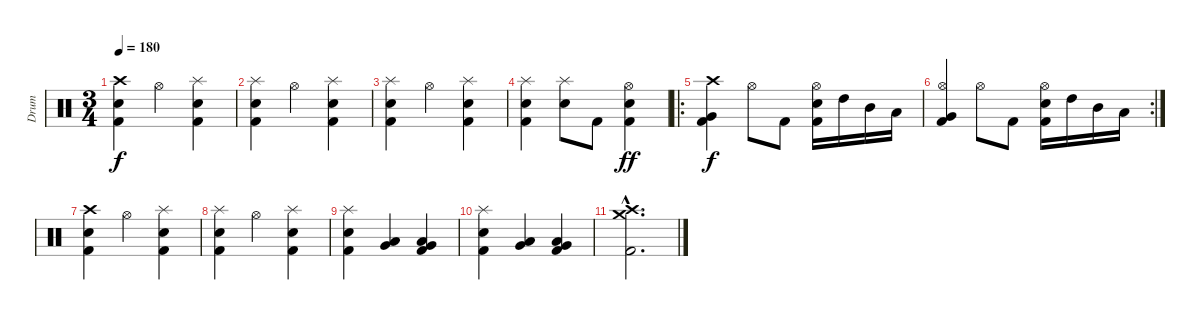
\track ("Drum" "Drum") {instrument percussion}
\staff {score}
\articulation defaults
\ts (3 4)
\tempo 180
\clef neutral
\ks c
("Crash high (hit)" "Electric Snare (hit)" "Kick (hit) 2").4{dy f} "Hi-Hat (open)".4 ("Splash (hit)" "Electric Snare (hit)" "Kick (hit) 2").4 |
("Splash (hit)" "Electric Snare (hit)" "Kick (hit) 2").4 "Hi-Hat (open)".4 ("Splash (hit)" "Electric Snare (hit)" "Kick (hit) 2").4 |
("Splash (hit)" "Electric Snare (hit)" "Kick (hit) 2").4 "Hi-Hat (open)".4 ("Splash (hit)" "Electric Snare (hit)" "Kick (hit) 2").4 |
("Splash (hit)" "Electric Snare (hit)" "Kick (hit) 2").4 ("Splash (hit)" "Electric Snare (hit)").8 "Kick (hit) 2".8 ("Hi-Hat (open)" "Electric Snare (hit)" "Kick (hit) 2").4{dy ff} |
\ro
("Crash high (hit)" "Very Low Tom (hit)" "Kick (hit) 2").4{dy f} "Hi-Hat (open)".8 "Kick (hit) 2".8 ("Hi-Hat (open)" "Electric Snare (hit)" "Kick (hit) 2").16 "High Tom (hit)".16 "Mid Tom (hit)".16 "Low Tom (hit)".16 |
\rc 2
("Hi-Hat (open)" "Very Low Tom (hit)" "Kick (hit) 2").4 "Hi-Hat (open)".8 "Kick (hit) 2".8 ("Hi-Hat (open)" "Electric Snare (hit)" "Kick (hit) 2").16 "High Tom (hit)".16 "Mid Tom (hit)".16 "Low Tom (hit)".16 |
("Crash high (hit)" "Electric Snare (hit)" "Kick (hit) 2").4 "Hi-Hat (open)".4 ("Splash (hit)" "Electric Snare (hit)" "Kick (hit) 2").4 |
("Splash (hit)" "Electric Snare (hit)" "Kick (hit) 2").4 "Hi-Hat (open)".4 ("Splash (hit)" "Electric Snare (hit)" "Kick (hit) 2").4 |
("Splash (hit)" "Electric Snare (hit)" "Kick (hit) 2").4 ("Low Tom (hit)" "Very Low Tom (hit)").4 ("Low Tom (hit)" "Very Low Tom (hit)" "Kick (hit) 2").4 |
("Splash (hit)" "Electric Snare (hit)" "Kick (hit) 2").4 ("Very Low Tom (hit)" "Low Floor Tom (hit)").4 ("Very Low Tom (hit)" "Low Floor Tom (hit)" "Kick (hit) 2").4 |
("Crash medium (hit)"{hac} "Crash high (hit)"{hac} "Kick (hit) 2"{hac}).2{d}
